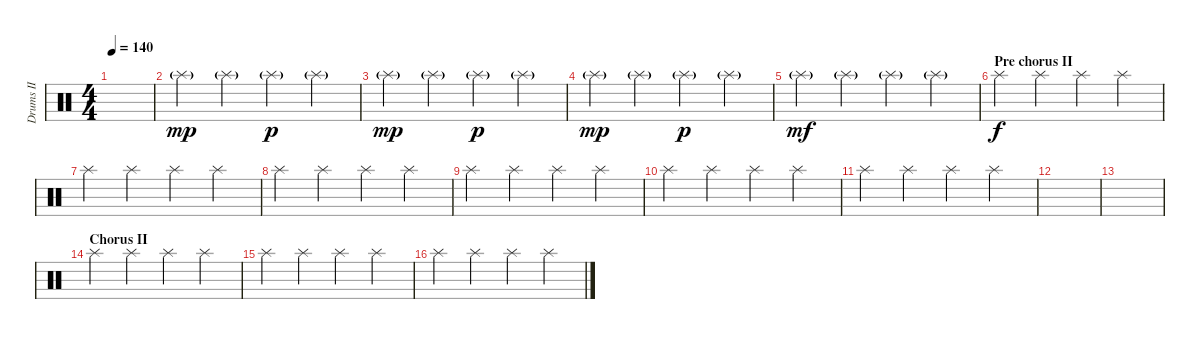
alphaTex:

\track ("Drums II" "Drums II") {instrument percussion}
\staff {score}
\articulation defaults
\ts (4 4)
\tempo 140
\clef neutral
\ks c
|
"Splash (hit)"{g}.4{dy mp} "Splash (hit)"{g}.4 "Splash (hit)"{g}.4{dy p} "Splash (hit)"{g}.4 |
"Splash (hit)"{g}.4{dy mp} "Splash (hit)"{g}.4 "Splash (hit)"{g}.4{dy p} "Splash (hit)"{g}.4 |
"Splash (hit)"{g}.4{dy mp} "Splash (hit)"{g}.4 "Splash (hit)"{g}.4{dy p} "Splash (hit)"{g}.4 |
"Splash (hit)"{g}.4{dy mf} "Splash (hit)"{g}.4 "Splash (hit)"{g}.4 "Splash (hit)"{g}.4 |
\section ("" "Pre chorus II")
"Splash (hit)".4{dy f} "Splash (hit)".4 "Splash (hit)".4 "Splash (hit)".4 |
"Splash (hit)".4 "Splash (hit)".4 "Splash (hit)".4 "Splash (hit)".4 |
"Splash (hit)".4 "Splash (hit)".4 "Splash (hit)".4 "Splash (hit)".4 |
"Splash (hit)".4 "Splash (hit)".4 "Splash (hit)".4 "Splash (hit)".4 |
"Splash (hit)".4 "Splash (hit)".4 "Splash (hit)".4 "Splash (hit)".4 |
"Splash (hit)".4 "Splash (hit)".4 "Splash (hit)".4 "Splash (hit)".4 |
|
|
\section ("" "Chorus II")
"Splash (hit)".4 "Splash (hit)".4 "Splash (hit)".4 "Splash (hit)".4 |
"Splash (hit)".4 "Splash (hit)".4 "Splash (hit)".4 "Splash (hit)".4 |
"Splash (hit)".4 "Splash (hit)".4 "Splash (hit)".4 "Splash (hit)".4
